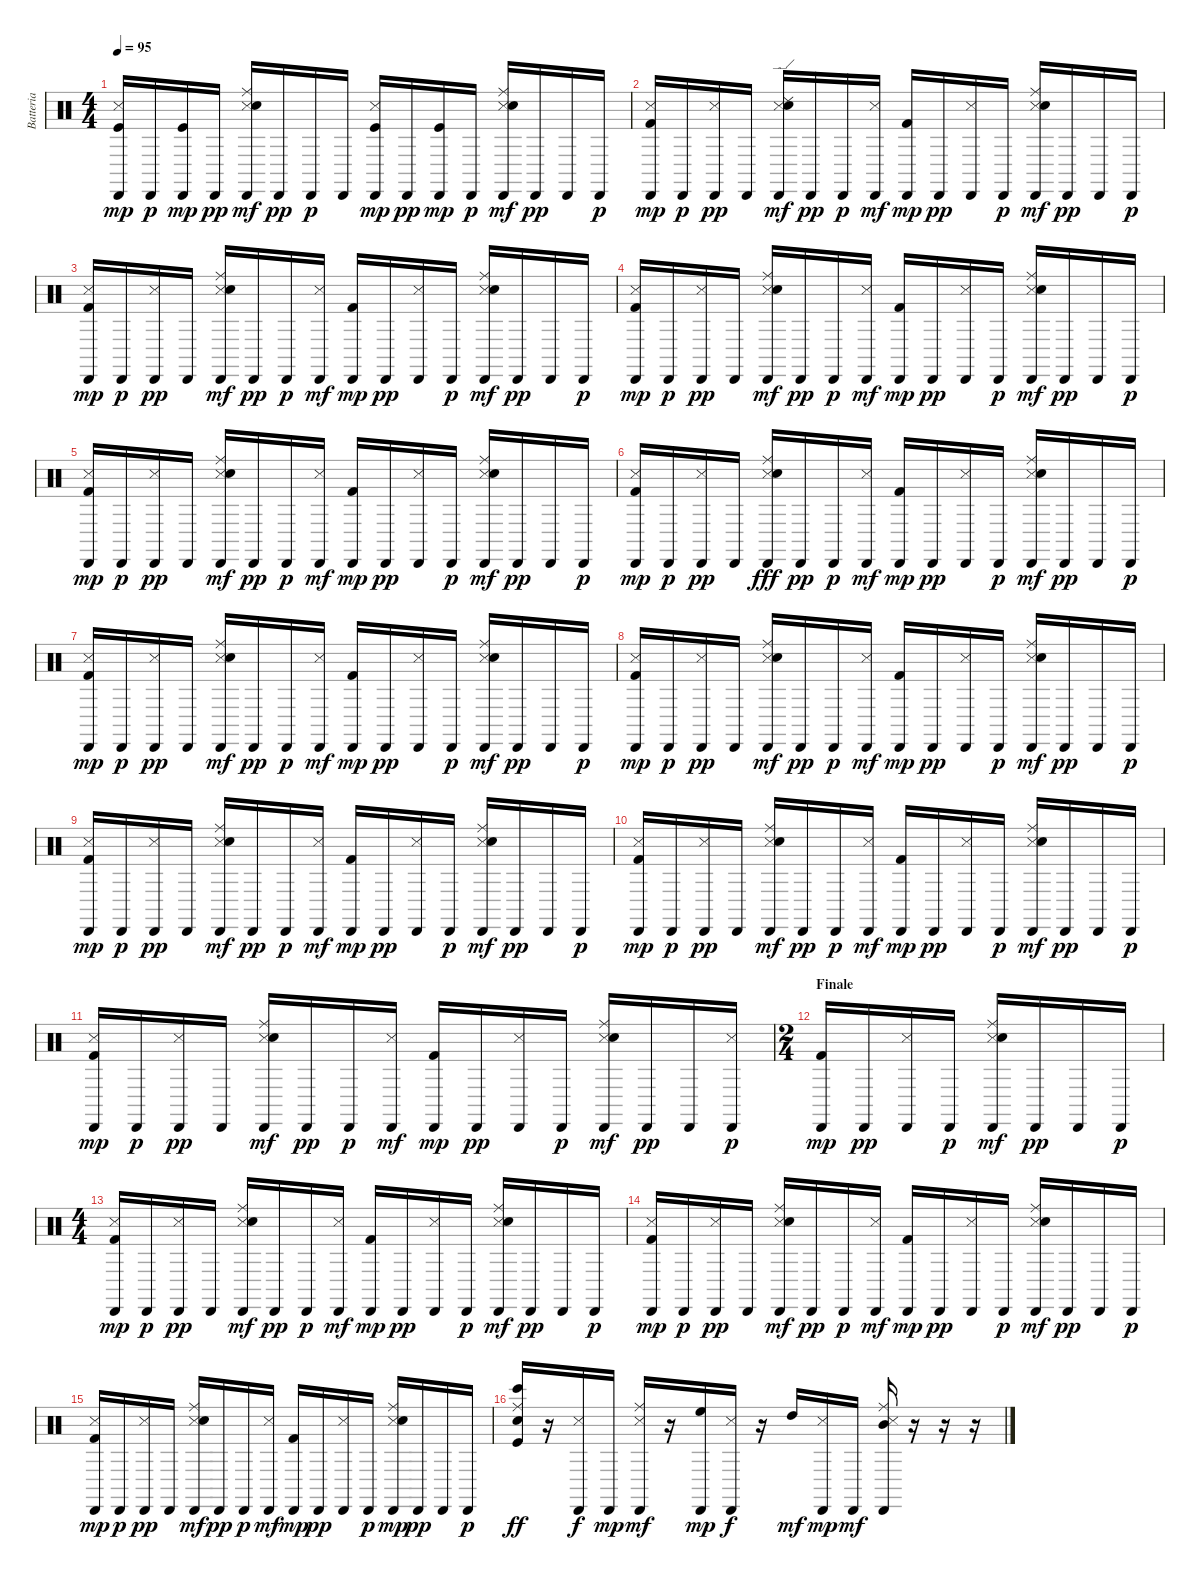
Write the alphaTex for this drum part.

\track ("Batteria" "Batteria") {instrument percussion}
\staff {score}
\articulation defaults
\ts (4 4)
\tempo 95
\clef neutral
\ks c
("Metronome (hit)" "Cabasa (hit)" "Kick (hit)").16{dy mp} "Cabasa (hit)".16{dy p} ("Cabasa (hit)" "Kick (hit)").16{dy mp} "Cabasa (hit)".16{dy pp} ("Metronome (hit)" "Cabasa (hit)" "Snare (hit) 2" "Ride (middle)").16{dy mf} "Cabasa (hit)".16{dy pp} "Cabasa (hit)".16{dy p} "Cabasa (hit)".16 ("Metronome (hit)" "Cabasa (hit)" "Kick (hit)").16{dy mp} "Cabasa (hit)".16{dy pp} ("Cabasa (hit)" "Kick (hit)").16{dy mp} "Cabasa (hit)".16{dy p} ("Metronome (hit)" "Cabasa (hit)" "Snare (hit) 2" "Ride (middle)").16{dy mf} "Cabasa (hit)".16{dy pp} "Cabasa (hit)".16 "Cabasa (hit)".16{dy p} |
("Metronome (hit)" "Cabasa (hit)" "Kick (hit) 2").16{dy mp} "Cabasa (hit)".16{dy p} ("Metronome (hit)" "Cabasa (hit)").16{dy pp} "Cabasa (hit)".16 ("Snare (side stick) 3" "Cabasa (hit)" "Ride (edge) 2" "Snare (hit) 2").16{dy mf} "Cabasa (hit)".16{dy pp} "Cabasa (hit)".16{dy p} ("Metronome (hit)" "Cabasa (hit)").16{dy mf} ("Cabasa (hit)" "Kick (hit) 2").16{dy mp} "Cabasa (hit)".16{dy pp} ("Metronome (hit)" "Cabasa (hit)").16 "Cabasa (hit)".16{dy p} ("Snare (side stick) 3" "Cabasa (hit)" "Snare (hit) 2" "Ride (middle)").16{dy mf} "Cabasa (hit)".16{dy pp} "Cabasa (hit)".16 "Cabasa (hit)".16{dy p} |
("Metronome (hit)" "Cabasa (hit)" "Kick (hit) 2").16{dy mp} "Cabasa (hit)".16{dy p} ("Metronome (hit)" "Cabasa (hit)").16{dy pp} "Cabasa (hit)".16 ("Snare (side stick) 3" "Cabasa (hit)" "Snare (hit) 2" "Ride (middle)").16{dy mf} "Cabasa (hit)".16{dy pp} "Cabasa (hit)".16{dy p} ("Metronome (hit)" "Cabasa (hit)").16{dy mf} ("Cabasa (hit)" "Kick (hit) 2").16{dy mp} "Cabasa (hit)".16{dy pp} ("Metronome (hit)" "Cabasa (hit)").16 "Cabasa (hit)".16{dy p} ("Snare (side stick) 3" "Cabasa (hit)" "Snare (hit) 2" "Ride (middle)").16{dy mf} "Cabasa (hit)".16{dy pp} "Cabasa (hit)".16 "Cabasa (hit)".16{dy p} |
("Metronome (hit)" "Cabasa (hit)" "Kick (hit) 2").16{dy mp} "Cabasa (hit)".16{dy p} ("Metronome (hit)" "Cabasa (hit)").16{dy pp} "Cabasa (hit)".16 ("Snare (side stick) 3" "Cabasa (hit)" "Snare (hit) 2" "Ride (middle)").16{dy mf} "Cabasa (hit)".16{dy pp} "Cabasa (hit)".16{dy p} ("Metronome (hit)" "Cabasa (hit)").16{dy mf} ("Cabasa (hit)" "Kick (hit) 2").16{dy mp} "Cabasa (hit)".16{dy pp} ("Metronome (hit)" "Cabasa (hit)").16 "Cabasa (hit)".16{dy p} ("Snare (side stick) 3" "Cabasa (hit)" "Snare (hit) 2" "Ride (middle)").16{dy mf} "Cabasa (hit)".16{dy pp} "Cabasa (hit)".16 "Cabasa (hit)".16{dy p} |
("Metronome (hit)" "Cabasa (hit)" "Kick (hit) 2").16{dy mp} "Cabasa (hit)".16{dy p} ("Metronome (hit)" "Cabasa (hit)").16{dy pp} "Cabasa (hit)".16 ("Snare (side stick) 3" "Cabasa (hit)" "Snare (hit) 2" "Ride (middle)").16{dy mf} "Cabasa (hit)".16{dy pp} "Cabasa (hit)".16{dy p} ("Metronome (hit)" "Cabasa (hit)").16{dy mf} ("Cabasa (hit)" "Kick (hit) 2").16{dy mp} "Cabasa (hit)".16{dy pp} ("Metronome (hit)" "Cabasa (hit)").16 "Cabasa (hit)".16{dy p} ("Snare (side stick) 3" "Cabasa (hit)" "Snare (hit) 2" "Ride (middle)").16{dy mf} "Cabasa (hit)".16{dy pp} "Cabasa (hit)".16 "Cabasa (hit)".16{dy p} |
("Metronome (hit)" "Cabasa (hit)" "Kick (hit) 2").16{dy mp} "Cabasa (hit)".16{dy p} ("Metronome (hit)" "Cabasa (hit)").16{dy pp} "Cabasa (hit)".16 ("Snare (side stick) 3" "Cabasa (hit)" "Snare (hit) 2" "Ride (middle)").16{dy fff} "Cabasa (hit)".16{dy pp} "Cabasa (hit)".16{dy p} ("Metronome (hit)" "Cabasa (hit)").16{dy mf} ("Cabasa (hit)" "Kick (hit) 2").16{dy mp} "Cabasa (hit)".16{dy pp} ("Metronome (hit)" "Cabasa (hit)").16 "Cabasa (hit)".16{dy p} ("Snare (side stick) 3" "Cabasa (hit)" "Snare (hit) 2" "Ride (middle)").16{dy mf} "Cabasa (hit)".16{dy pp} "Cabasa (hit)".16 "Cabasa (hit)".16{dy p} |
("Metronome (hit)" "Cabasa (hit)" "Kick (hit) 2").16{dy mp} "Cabasa (hit)".16{dy p} ("Metronome (hit)" "Cabasa (hit)").16{dy pp} "Cabasa (hit)".16 ("Snare (side stick) 3" "Cabasa (hit)" "Snare (hit) 2" "Ride (middle)").16{dy mf} "Cabasa (hit)".16{dy pp} "Cabasa (hit)".16{dy p} ("Metronome (hit)" "Cabasa (hit)").16{dy mf} ("Cabasa (hit)" "Kick (hit) 2").16{dy mp} "Cabasa (hit)".16{dy pp} ("Metronome (hit)" "Cabasa (hit)").16 "Cabasa (hit)".16{dy p} ("Snare (side stick) 3" "Cabasa (hit)" "Snare (hit) 2" "Ride (middle)").16{dy mf} "Cabasa (hit)".16{dy pp} "Cabasa (hit)".16 "Cabasa (hit)".16{dy p} |
("Metronome (hit)" "Cabasa (hit)" "Kick (hit) 2").16{dy mp} "Cabasa (hit)".16{dy p} ("Metronome (hit)" "Cabasa (hit)").16{dy pp} "Cabasa (hit)".16 ("Snare (side stick) 3" "Cabasa (hit)" "Snare (hit) 2" "Ride (middle)").16{dy mf} "Cabasa (hit)".16{dy pp} "Cabasa (hit)".16{dy p} ("Metronome (hit)" "Cabasa (hit)").16{dy mf} ("Cabasa (hit)" "Kick (hit) 2").16{dy mp} "Cabasa (hit)".16{dy pp} ("Metronome (hit)" "Cabasa (hit)").16 "Cabasa (hit)".16{dy p} ("Snare (side stick) 3" "Cabasa (hit)" "Snare (hit) 2" "Ride (middle)").16{dy mf} "Cabasa (hit)".16{dy pp} "Cabasa (hit)".16 "Cabasa (hit)".16{dy p} |
("Metronome (hit)" "Cabasa (hit)" "Kick (hit) 2").16{dy mp} "Cabasa (hit)".16{dy p} ("Metronome (hit)" "Cabasa (hit)").16{dy pp} "Cabasa (hit)".16 ("Snare (side stick) 3" "Cabasa (hit)" "Snare (hit) 2" "Ride (middle)").16{dy mf} "Cabasa (hit)".16{dy pp} "Cabasa (hit)".16{dy p} ("Metronome (hit)" "Cabasa (hit)").16{dy mf} ("Cabasa (hit)" "Kick (hit) 2").16{dy mp} "Cabasa (hit)".16{dy pp} ("Metronome (hit)" "Cabasa (hit)").16 "Cabasa (hit)".16{dy p} ("Snare (side stick) 3" "Cabasa (hit)" "Snare (hit) 2" "Ride (middle)").16{dy mf} "Cabasa (hit)".16{dy pp} "Cabasa (hit)".16 "Cabasa (hit)".16{dy p} |
("Metronome (hit)" "Cabasa (hit)" "Kick (hit) 2").16{dy mp} "Cabasa (hit)".16{dy p} ("Metronome (hit)" "Cabasa (hit)").16{dy pp} "Cabasa (hit)".16 ("Snare (side stick) 3" "Cabasa (hit)" "Snare (hit) 2" "Ride (middle)").16{dy mf} "Cabasa (hit)".16{dy pp} "Cabasa (hit)".16{dy p} ("Metronome (hit)" "Cabasa (hit)").16{dy mf} ("Cabasa (hit)" "Kick (hit) 2").16{dy mp} "Cabasa (hit)".16{dy pp} ("Metronome (hit)" "Cabasa (hit)").16 "Cabasa (hit)".16{dy p} ("Snare (side stick) 3" "Cabasa (hit)" "Snare (hit) 2" "Ride (middle)").16{dy mf} "Cabasa (hit)".16{dy pp} "Cabasa (hit)".16 "Cabasa (hit)".16{dy p} |
("Metronome (hit)" "Cabasa (hit)" "Kick (hit) 2").16{dy mp} "Cabasa (hit)".16{dy p} ("Metronome (hit)" "Cabasa (hit)").16{dy pp} "Cabasa (hit)".16 ("Snare (side stick) 3" "Cabasa (hit)" "Snare (hit) 2" "Ride (middle)").16{dy mf} "Cabasa (hit)".16{dy pp} "Cabasa (hit)".16{dy p} ("Metronome (hit)" "Cabasa (hit)").16{dy mf} ("Cabasa (hit)" "Kick (hit) 2").16{dy mp} "Cabasa (hit)".16{dy pp} ("Metronome (hit)" "Cabasa (hit)").16 "Cabasa (hit)".16{dy p} ("Snare (side stick) 3" "Cabasa (hit)" "Snare (hit) 2" "Ride (middle)").16{dy mf} "Cabasa (hit)".16{dy pp} "Cabasa (hit)".16 ("Metronome (hit)" "Cabasa (hit)").16{dy p} |
\ts (2 4)
\section ("" "Finale")
("Cabasa (hit)" "Kick (hit) 2").16{dy mp} "Cabasa (hit)".16{dy pp} ("Metronome (hit)" "Cabasa (hit)").16 "Cabasa (hit)".16{dy p} ("Snare (side stick) 3" "Cabasa (hit)" "Snare (hit) 2" "Ride (middle)").16{dy mf} "Cabasa (hit)".16{dy pp} "Cabasa (hit)".16 "Cabasa (hit)".16{dy p} |
\ts (4 4)
("Metronome (hit)" "Cabasa (hit)" "Kick (hit) 2").16{dy mp} "Cabasa (hit)".16{dy p} ("Metronome (hit)" "Cabasa (hit)").16{dy pp} "Cabasa (hit)".16 ("Snare (side stick) 3" "Cabasa (hit)" "Snare (hit) 2" "Ride (middle)").16{dy mf} "Cabasa (hit)".16{dy pp} "Cabasa (hit)".16{dy p} ("Metronome (hit)" "Cabasa (hit)").16{dy mf} ("Cabasa (hit)" "Kick (hit) 2").16{dy mp} "Cabasa (hit)".16{dy pp} ("Metronome (hit)" "Cabasa (hit)").16 "Cabasa (hit)".16{dy p} ("Snare (side stick) 3" "Cabasa (hit)" "Snare (hit) 2" "Ride (middle)").16{dy mf} "Cabasa (hit)".16{dy pp} "Cabasa (hit)".16 "Cabasa (hit)".16{dy p} |
("Metronome (hit)" "Cabasa (hit)" "Kick (hit) 2").16{dy mp} "Cabasa (hit)".16{dy p} ("Metronome (hit)" "Cabasa (hit)").16{dy pp} "Cabasa (hit)".16 ("Snare (side stick) 3" "Cabasa (hit)" "Snare (hit) 2" "Ride (middle)").16{dy mf} "Cabasa (hit)".16{dy pp} "Cabasa (hit)".16{dy p} ("Metronome (hit)" "Cabasa (hit)").16{dy mf} ("Cabasa (hit)" "Kick (hit) 2").16{dy mp} "Cabasa (hit)".16{dy pp} ("Metronome (hit)" "Cabasa (hit)").16 "Cabasa (hit)".16{dy p} ("Snare (side stick) 3" "Cabasa (hit)" "Snare (hit) 2" "Ride (middle)").16{dy mf} "Cabasa (hit)".16{dy pp} "Cabasa (hit)".16 "Cabasa (hit)".16{dy p} |
("Metronome (hit)" "Cabasa (hit)" "Kick (hit) 2").16{dy mp} "Cabasa (hit)".16{dy p} ("Metronome (hit)" "Cabasa (hit)").16{dy pp} "Cabasa (hit)".16 ("Snare (side stick) 3" "Cabasa (hit)" "Snare (hit) 2" "Ride (middle)").16{dy mf} "Cabasa (hit)".16{dy pp} "Cabasa (hit)".16{dy p} ("Metronome (hit)" "Cabasa (hit)").16{dy mf} ("Cabasa (hit)" "Kick (hit) 2").16{dy mp} "Cabasa (hit)".16{dy pp} ("Metronome (hit)" "Cabasa (hit)").16 "Cabasa (hit)".16{dy p} ("Snare (side stick) 3" "Cabasa (hit)" "Snare (hit) 2" "Ride (middle)").16{dy mp} "Cabasa (hit)".16{dy pp} "Cabasa (hit)".16 "Cabasa (hit)".16{dy p} |
("Ride (middle)" "Bongo High (hit)" "Kick (hit)" "Snare (hit) 2").16{dy ff} r.16 ("Metronome (hit)" "Cabasa (hit)").16{dy f} "Cabasa (hit)".16{dy mp} ("Snare (side stick) 3" "Cabasa (hit)" "Ride (middle)").16{dy mf} r.16 ("Cabasa (hit)" "High Floor Tom (hit)").16{dy mp} ("Metronome (hit)" "Cabasa (hit)").16{dy f} r.16 "High Tom (hit)".16{dy mf} ("Metronome (hit)" "Cabasa (hit)").16{dy mp} "Cabasa (hit)".16{dy mf} ("Snare (side stick) 3" "Cabasa (hit)" "Mid Tom (hit)" "Ride (middle)").16 r.16 r.16 r.16
